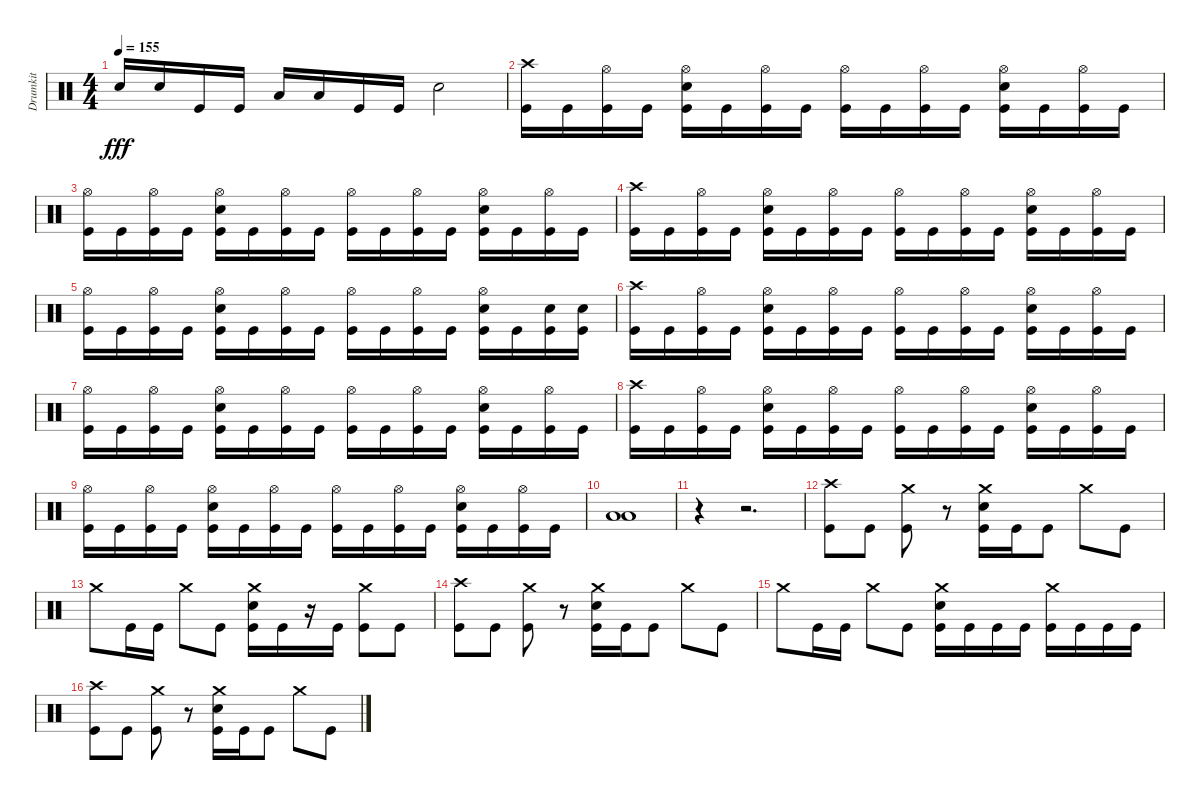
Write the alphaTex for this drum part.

\track ("Drumkit" "Drumkit") {instrument percussion}
\staff {score}
\articulation defaults
\ts (4 4)
\tempo 155
\clef neutral
\ks c "Snare (hit) 2".16{dy fff} "Snare (hit) 2".16 "Kick (hit)".16 "Kick (hit)".16 "Low Tom (hit)".16 "Low Tom (hit)".16 "Kick (hit)".16 "Kick (hit)".16 "Snare (hit) 2".2
|
("Crash high (hit)" "Kick (hit)").16 "Kick (hit)".16 ("Hi-Hat (open)" "Kick (hit)").16 "Kick (hit)".16 ("Hi-Hat (open)" "Snare (hit) 2" "Kick (hit)").16 "Kick (hit)".16 ("Hi-Hat (open)" "Kick (hit)").16 "Kick (hit)".16 ("Hi-Hat (open)" "Kick (hit)").16 "Kick (hit)".16 ("Hi-Hat (open)" "Kick (hit)").16 "Kick (hit)".16 ("Hi-Hat (open)" "Snare (hit) 2" "Kick (hit)").16 "Kick (hit)".16 ("Hi-Hat (open)" "Kick (hit)").16 "Kick (hit)".16 |
("Hi-Hat (open)" "Kick (hit)").16 "Kick (hit)".16 ("Hi-Hat (open)" "Kick (hit)").16 "Kick (hit)".16 ("Hi-Hat (open)" "Snare (hit) 2" "Kick (hit)").16 "Kick (hit)".16 ("Hi-Hat (open)" "Kick (hit)").16 "Kick (hit)".16 ("Hi-Hat (open)" "Kick (hit)").16 "Kick (hit)".16 ("Hi-Hat (open)" "Kick (hit)").16 "Kick (hit)".16 ("Hi-Hat (open)" "Snare (hit) 2" "Kick (hit)").16 "Kick (hit)".16 ("Hi-Hat (open)" "Kick (hit)").16 "Kick (hit)".16 |
("Crash high (hit)" "Kick (hit)").16 "Kick (hit)".16 ("Hi-Hat (open)" "Kick (hit)").16 "Kick (hit)".16 ("Hi-Hat (open)" "Snare (hit) 2" "Kick (hit)").16 "Kick (hit)".16 ("Hi-Hat (open)" "Kick (hit)").16 "Kick (hit)".16 ("Hi-Hat (open)" "Kick (hit)").16 "Kick (hit)".16 ("Hi-Hat (open)" "Kick (hit)").16 "Kick (hit)".16 ("Hi-Hat (open)" "Snare (hit) 2" "Kick (hit)").16 "Kick (hit)".16 ("Hi-Hat (open)" "Kick (hit)").16 "Kick (hit)".16 |
("Hi-Hat (open)" "Kick (hit)").16 "Kick (hit)".16 ("Hi-Hat (open)" "Kick (hit)").16 "Kick (hit)".16 ("Hi-Hat (open)" "Snare (hit) 2" "Kick (hit)").16 "Kick (hit)".16 ("Hi-Hat (open)" "Kick (hit)").16 "Kick (hit)".16 ("Hi-Hat (open)" "Kick (hit)").16 "Kick (hit)".16 ("Hi-Hat (open)" "Kick (hit)").16 "Kick (hit)".16 ("Hi-Hat (open)" "Snare (hit) 2" "Kick (hit)").16 "Kick (hit)".16 ("Snare (hit) 2" "Kick (hit)").16 ("Snare (hit) 2" "Kick (hit)").16 |
("Crash high (hit)" "Kick (hit)").16 "Kick (hit)".16 ("Hi-Hat (open)" "Kick (hit)").16 "Kick (hit)".16 ("Hi-Hat (open)" "Snare (hit) 2" "Kick (hit)").16 "Kick (hit)".16 ("Hi-Hat (open)" "Kick (hit)").16 "Kick (hit)".16 ("Hi-Hat (open)" "Kick (hit)").16 "Kick (hit)".16 ("Hi-Hat (open)" "Kick (hit)").16 "Kick (hit)".16 ("Hi-Hat (open)" "Snare (hit) 2" "Kick (hit)").16 "Kick (hit)".16 ("Hi-Hat (open)" "Kick (hit)").16 "Kick (hit)".16 |
("Hi-Hat (open)" "Kick (hit)").16 "Kick (hit)".16 ("Hi-Hat (open)" "Kick (hit)").16 "Kick (hit)".16 ("Hi-Hat (open)" "Snare (hit) 2" "Kick (hit)").16 "Kick (hit)".16 ("Hi-Hat (open)" "Kick (hit)").16 "Kick (hit)".16 ("Hi-Hat (open)" "Kick (hit)").16 "Kick (hit)".16 ("Hi-Hat (open)" "Kick (hit)").16 "Kick (hit)".16 ("Hi-Hat (open)" "Snare (hit) 2" "Kick (hit)").16 "Kick (hit)".16 ("Hi-Hat (open)" "Kick (hit)").16 "Kick (hit)".16 |
("Crash high (hit)" "Kick (hit)").16 "Kick (hit)".16 ("Hi-Hat (open)" "Kick (hit)").16 "Kick (hit)".16 ("Hi-Hat (open)" "Snare (hit) 2" "Kick (hit)").16 "Kick (hit)".16 ("Hi-Hat (open)" "Kick (hit)").16 "Kick (hit)".16 ("Hi-Hat (open)" "Kick (hit)").16 "Kick (hit)".16 ("Hi-Hat (open)" "Kick (hit)").16 "Kick (hit)".16 ("Hi-Hat (open)" "Snare (hit) 2" "Kick (hit)").16 "Kick (hit)".16 ("Hi-Hat (open)" "Kick (hit)").16 "Kick (hit)".16 |
("Hi-Hat (open)" "Kick (hit)").16 "Kick (hit)".16 ("Hi-Hat (open)" "Kick (hit)").16 "Kick (hit)".16 ("Hi-Hat (open)" "Snare (hit) 2" "Kick (hit)").16 "Kick (hit)".16 ("Hi-Hat (open)" "Kick (hit)").16 "Kick (hit)".16 ("Hi-Hat (open)" "Kick (hit)").16 "Kick (hit)".16 ("Hi-Hat (open)" "Kick (hit)").16 "Kick (hit)".16 ("Hi-Hat (open)" "Snare (hit) 2" "Kick (hit)").16 "Kick (hit)".16 ("Hi-Hat (open)" "Kick (hit)").16 "Kick (hit)".16 |
("Low Floor Tom (hit)" "Low Tom (hit)").1 |
r.4 r.2{d} |
("Crash high (hit)" "Kick (hit)").8 "Kick (hit)".8 ("Crash medium (hit)" "Kick (hit)").8 r.8 ("Crash medium (hit)" "Snare (hit) 2" "Kick (hit)").16 "Kick (hit)".16 "Kick (hit)".8 "Crash medium (hit)".8 "Kick (hit)".8 |
"Crash medium (hit)".8 "Kick (hit)".16 "Kick (hit)".16 "Crash medium (hit)".8 "Kick (hit)".8 ("Crash medium (hit)" "Snare (hit) 2" "Kick (hit)").16 "Kick (hit)".16 r.16 "Kick (hit)".16 ("Crash medium (hit)" "Kick (hit)").8 "Kick (hit)".8 |
("Crash high (hit)" "Kick (hit)").8 "Kick (hit)".8 ("Crash medium (hit)" "Kick (hit)").8 r.8 ("Crash medium (hit)" "Snare (hit) 2" "Kick (hit)").16 "Kick (hit)".16 "Kick (hit)".8 "Crash medium (hit)".8 "Kick (hit)".8 |
"Crash medium (hit)".8 "Kick (hit)".16 "Kick (hit)".16 "Crash medium (hit)".8 "Kick (hit)".8 ("Crash medium (hit)" "Snare (hit) 2" "Kick (hit)").16 "Kick (hit)".16 "Kick (hit)".16 "Kick (hit)".16 ("Crash medium (hit)" "Kick (hit)").16 "Kick (hit)".16 "Kick (hit)".16 "Kick (hit)".16 |
("Crash high (hit)" "Kick (hit)").8 "Kick (hit)".8 ("Crash medium (hit)" "Kick (hit)").8 r.8 ("Crash medium (hit)" "Snare (hit) 2" "Kick (hit)").16 "Kick (hit)".16 "Kick (hit)".8 "Crash medium (hit)".8 "Kick (hit)".8
